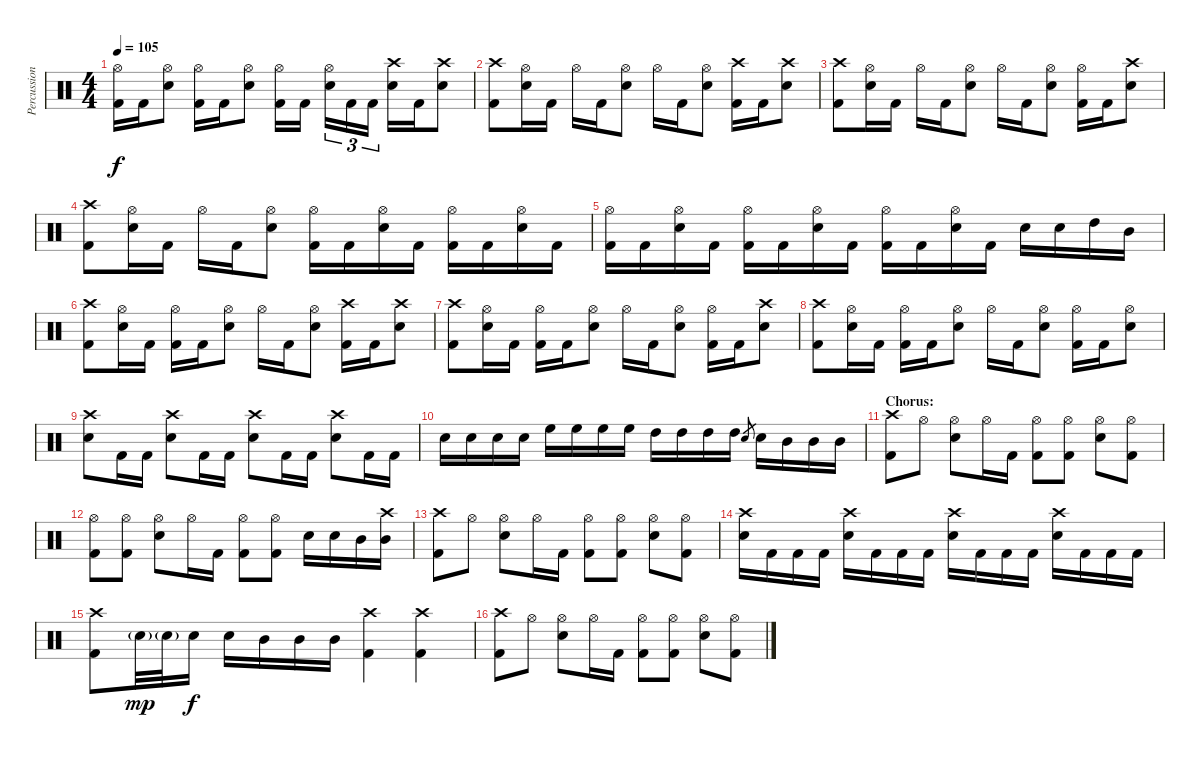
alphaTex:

\track ("Percussion" "Percussion") {instrument percussion}
\staff {score}
\articulation defaults
\ts (4 4)
\tempo 105
\clef neutral
\ks c
("Hi-Hat (open)" "Kick (hit) 2").16{dy f} "Kick (hit) 2".16 ("Hi-Hat (open)" "Snare (hit) 2").8 ("Hi-Hat (open)" "Kick (hit) 2").16 "Kick (hit) 2".16 ("Hi-Hat (open)" "Snare (hit) 2").8 ("Hi-Hat (open)" "Kick (hit) 2").16 "Kick (hit) 2".16 ("Hi-Hat (open)" "Snare (hit) 2").16{tu (3 2)} "Kick (hit) 2".16{tu (3 2)} "Kick (hit) 2".16{tu (3 2)} ("Crash high (hit)" "Snare (hit) 2").16 "Kick (hit) 2".16 ("Crash high (hit)" "Snare (hit) 2").8 |
("Crash high (hit)" "Kick (hit) 2").8 ("Hi-Hat (open)" "Snare (hit) 2").16 "Kick (hit) 2".16 "Hi-Hat (open)".16 "Kick (hit) 2".16 ("Hi-Hat (open)" "Snare (hit) 2").8 "Hi-Hat (open)".16 "Kick (hit) 2".16 ("Hi-Hat (open)" "Snare (hit) 2").8 ("Crash high (hit)" "Kick (hit) 2").16 "Kick (hit) 2".16 ("Crash high (hit)" "Snare (hit) 2").8 |
("Crash high (hit)" "Kick (hit) 2").8 ("Hi-Hat (open)" "Snare (hit) 2").16 "Kick (hit) 2".16 "Hi-Hat (open)".16 "Kick (hit) 2".16 ("Hi-Hat (open)" "Snare (hit) 2").8 "Hi-Hat (open)".16 "Kick (hit) 2".16 ("Hi-Hat (open)" "Snare (hit) 2").8 ("Hi-Hat (open)" "Kick (hit) 2").16 "Kick (hit) 2".16 ("Crash high (hit)" "Snare (hit) 2").8 |
("Crash high (hit)" "Kick (hit) 2").8 ("Hi-Hat (open)" "Snare (hit) 2").16 "Kick (hit) 2".16 "Hi-Hat (open)".16 "Kick (hit) 2".16 ("Hi-Hat (open)" "Snare (hit) 2").8 ("Hi-Hat (open)" "Kick (hit) 2").16 "Kick (hit) 2".16 ("Hi-Hat (open)" "Snare (hit) 2").16 "Kick (hit) 2".16 ("Hi-Hat (open)" "Kick (hit) 2").16 "Kick (hit) 2".16 ("Hi-Hat (open)" "Snare (hit) 2").16 "Kick (hit) 2".16 |
("Hi-Hat (open)" "Kick (hit) 2").16 "Kick (hit) 2".16 ("Hi-Hat (open)" "Snare (hit) 2").16 "Kick (hit) 2".16 ("Hi-Hat (open)" "Kick (hit) 2").16 "Kick (hit) 2".16 ("Hi-Hat (open)" "Snare (hit) 2").16 "Kick (hit) 2".16 ("Hi-Hat (open)" "Kick (hit) 2").16 "Kick (hit) 2".16 ("Hi-Hat (open)" "Snare (hit) 2").16 "Kick (hit) 2".16 "Snare (hit) 2".16 "Snare (hit) 2".16 "High Tom (hit)".16 "Mid Tom (hit)".16 |
("Crash high (hit)" "Kick (hit) 2").8 ("Hi-Hat (open)" "Snare (hit) 2").16 "Kick (hit) 2".16 ("Hi-Hat (open)" "Kick (hit) 2").16 "Kick (hit) 2".16 ("Hi-Hat (open)" "Snare (hit) 2").8 "Hi-Hat (open)".16 "Kick (hit) 2".16 ("Hi-Hat (open)" "Snare (hit) 2").8 ("Crash high (hit)" "Kick (hit) 2").16 "Kick (hit) 2".16 ("Crash high (hit)" "Snare (hit) 2").8 |
("Crash high (hit)" "Kick (hit) 2").8 ("Hi-Hat (open)" "Snare (hit) 2").16 "Kick (hit) 2".16 ("Hi-Hat (open)" "Kick (hit) 2").16 "Kick (hit) 2".16 ("Hi-Hat (open)" "Snare (hit) 2").8 "Hi-Hat (open)".16 "Kick (hit) 2".16 ("Hi-Hat (open)" "Snare (hit) 2").8 ("Hi-Hat (open)" "Kick (hit) 2").16 "Kick (hit) 2".16 ("Crash high (hit)" "Snare (hit) 2").8 |
("Crash high (hit)" "Kick (hit) 2").8 ("Hi-Hat (open)" "Snare (hit) 2").16 "Kick (hit) 2".16 ("Hi-Hat (open)" "Kick (hit) 2").16 "Kick (hit) 2".16 ("Hi-Hat (open)" "Snare (hit) 2").8 "Hi-Hat (open)".16 "Kick (hit) 2".16 ("Hi-Hat (open)" "Snare (hit) 2").8 ("Hi-Hat (open)" "Kick (hit) 2").16 "Kick (hit) 2".16 ("Hi-Hat (open)" "Snare (hit) 2").8 |
("Crash high (hit)" "Snare (hit) 2").8 "Kick (hit) 2".16 "Kick (hit) 2".16 ("Crash high (hit)" "Snare (hit) 2").8 "Kick (hit) 2".16 "Kick (hit) 2".16 ("Crash high (hit)" "Snare (hit) 2").8 "Kick (hit) 2".16 "Kick (hit) 2".16 ("Crash high (hit)" "Snare (hit) 2").8 "Kick (hit) 2".16 "Kick (hit) 2".16 |
"Snare (hit) 2".16 "Snare (hit) 2".16 "Snare (hit) 2".16 "Snare (hit) 2".16 "High Floor Tom (hit)".16 "High Floor Tom (hit)".16 "High Floor Tom (hit)".16 "High Floor Tom (hit)".16 "High Tom (hit)".16 "High Tom (hit)".16 "High Tom (hit)".16 "High Tom (hit)".16 "Snare (hit) 2".8{gr} "Snare (hit) 2".16 "Mid Tom (hit)".16 "Mid Tom (hit)".16 "Mid Tom (hit)".16 |
\section ("" "Chorus:")
("Crash high (hit)" "Kick (hit) 2").8 "Hi-Hat (open)".8 ("Hi-Hat (open)" "Snare (hit) 2").8 "Hi-Hat (open)".16 "Kick (hit) 2".16 ("Hi-Hat (open)" "Kick (hit) 2").8 ("Hi-Hat (open)" "Kick (hit) 2").8 ("Hi-Hat (open)" "Snare (hit) 2").8 ("Hi-Hat (open)" "Kick (hit) 2").8 |
("Hi-Hat (open)" "Kick (hit) 2").8 ("Hi-Hat (open)" "Kick (hit) 2").8 ("Hi-Hat (open)" "Snare (hit) 2").8 "Hi-Hat (open)".16 "Kick (hit) 2".16 ("Hi-Hat (open)" "Kick (hit) 2").8 ("Hi-Hat (open)" "Kick (hit) 2").8 "Snare (hit) 2".16 "Snare (hit) 2".16 "Mid Tom (hit)".16 ("Crash high (hit)" "Mid Tom (hit)").16 |
("Crash high (hit)" "Kick (hit) 2").8 "Hi-Hat (open)".8 ("Hi-Hat (open)" "Snare (hit) 2").8 "Hi-Hat (open)".16 "Kick (hit) 2".16 ("Hi-Hat (open)" "Kick (hit) 2").8 ("Hi-Hat (open)" "Kick (hit) 2").8 ("Hi-Hat (open)" "Snare (hit) 2").8 ("Hi-Hat (open)" "Kick (hit) 2").8 |
("Crash high (hit)" "Snare (hit) 2").16 "Kick (hit) 2".16 "Kick (hit) 2".16 "Kick (hit) 2".16 ("Crash high (hit)" "Snare (hit) 2").16 "Kick (hit) 2".16 "Kick (hit) 2".16 "Kick (hit) 2".16 ("Crash high (hit)" "Snare (hit) 2").16 "Kick (hit) 2".16 "Kick (hit) 2".16 "Kick (hit) 2".16 ("Crash high (hit)" "Snare (hit) 2").16 "Kick (hit) 2".16 "Kick (hit) 2".16 "Kick (hit) 2".16 |
("Crash high (hit)" "Kick (hit) 2").8 "Snare (hit) 2"{g}.32{dy mp} "Snare (hit) 2"{g}.32 "Snare (hit) 2".16{dy f} "Snare (hit) 2".16 "Mid Tom (hit)".16 "Mid Tom (hit)".16 "Mid Tom (hit)".16 ("Crash high (hit)" "Kick (hit) 2").4 ("Crash high (hit)" "Kick (hit) 2").4 |
("Crash high (hit)" "Kick (hit) 2").8 "Hi-Hat (open)".8 ("Hi-Hat (open)" "Snare (hit) 2").8 "Hi-Hat (open)".16 "Kick (hit) 2".16 ("Hi-Hat (open)" "Kick (hit) 2").8 ("Hi-Hat (open)" "Kick (hit) 2").8 ("Hi-Hat (open)" "Snare (hit) 2").8 ("Hi-Hat (open)" "Kick (hit) 2").8
